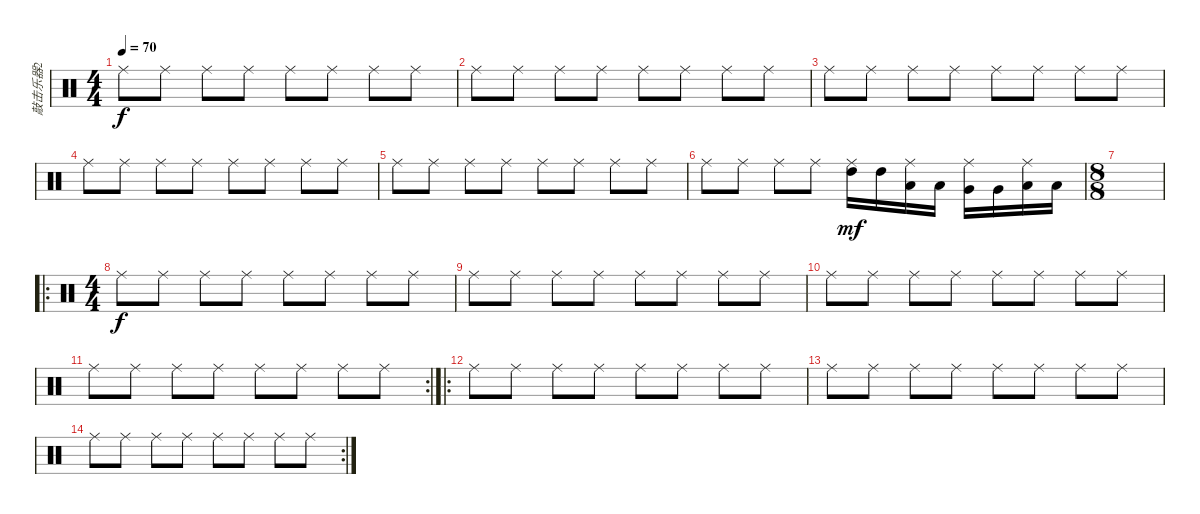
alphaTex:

\track ("敲击乐器2" "敲击乐器2") {instrument percussion}
\staff {score}
\articulation defaults
\ts (4 4)
\tempo 70
\clef neutral
\ks c "Ride (middle)".8{dy f} "Ride (middle)".8 "Ride (middle)".8 "Ride (middle)".8 "Ride (middle)".8 "Ride (middle)".8 "Ride (middle)".8 "Ride (middle)".8
|
"Ride (middle)".8 "Ride (middle)".8 "Ride (middle)".8 "Ride (middle)".8 "Ride (middle)".8 "Ride (middle)".8 "Ride (middle)".8 "Ride (middle)".8 |
"Ride (middle)".8 "Ride (middle)".8 "Ride (middle)".8 "Ride (middle)".8 "Ride (middle)".8 "Ride (middle)".8 "Ride (middle)".8 "Ride (middle)".8 |
"Ride (middle)".8 "Ride (middle)".8 "Ride (middle)".8 "Ride (middle)".8 "Ride (middle)".8 "Ride (middle)".8 "Ride (middle)".8 "Ride (middle)".8 |
"Ride (middle)".8 "Ride (middle)".8 "Ride (middle)".8 "Ride (middle)".8 "Ride (middle)".8 "Ride (middle)".8 "Ride (middle)".8 "Ride (middle)".8 |
"Ride (middle)".8 "Ride (middle)".8 "Ride (middle)".8 "Ride (middle)".8 ("Ride (middle)" "High Tom (hit)").16{dy mf} "High Tom (hit)".16 ("Ride (middle)" "Low Tom (hit)").16 "Low Tom (hit)".16 ("Ride (middle)" "Very Low Tom (hit)").16 "Very Low Tom (hit)".16 ("Ride (middle)" "Low Floor Tom (hit)").16 "Low Floor Tom (hit)".16 |
\ts (8 8)
|
\ro
\ts (4 4)
"Ride (middle)".8{dy f} "Ride (middle)".8 "Ride (middle)".8 "Ride (middle)".8 "Ride (middle)".8 "Ride (middle)".8 "Ride (middle)".8 "Ride (middle)".8 |
"Ride (middle)".8 "Ride (middle)".8 "Ride (middle)".8 "Ride (middle)".8 "Ride (middle)".8 "Ride (middle)".8 "Ride (middle)".8 "Ride (middle)".8 |
"Ride (middle)".8 "Ride (middle)".8 "Ride (middle)".8 "Ride (middle)".8 "Ride (middle)".8 "Ride (middle)".8 "Ride (middle)".8 "Ride (middle)".8 |
\rc 2 "Ride (middle)".8 "Ride (middle)".8 "Ride (middle)".8 "Ride (middle)".8 "Ride (middle)".8 "Ride (middle)".8 "Ride (middle)".8 "Ride (middle)".8
|
\ro "Ride (middle)".8 "Ride (middle)".8 "Ride (middle)".8 "Ride (middle)".8 "Ride (middle)".8 "Ride (middle)".8 "Ride (middle)".8 "Ride (middle)".8
|
"Ride (middle)".8 "Ride (middle)".8 "Ride (middle)".8 "Ride (middle)".8 "Ride (middle)".8 "Ride (middle)".8 "Ride (middle)".8 "Ride (middle)".8 |
\rc 2 "Ride (middle)".8 "Ride (middle)".8 "Ride (middle)".8 "Ride (middle)".8 "Ride (middle)".8 "Ride (middle)".8 "Ride (middle)".8 "Ride (middle)".8
